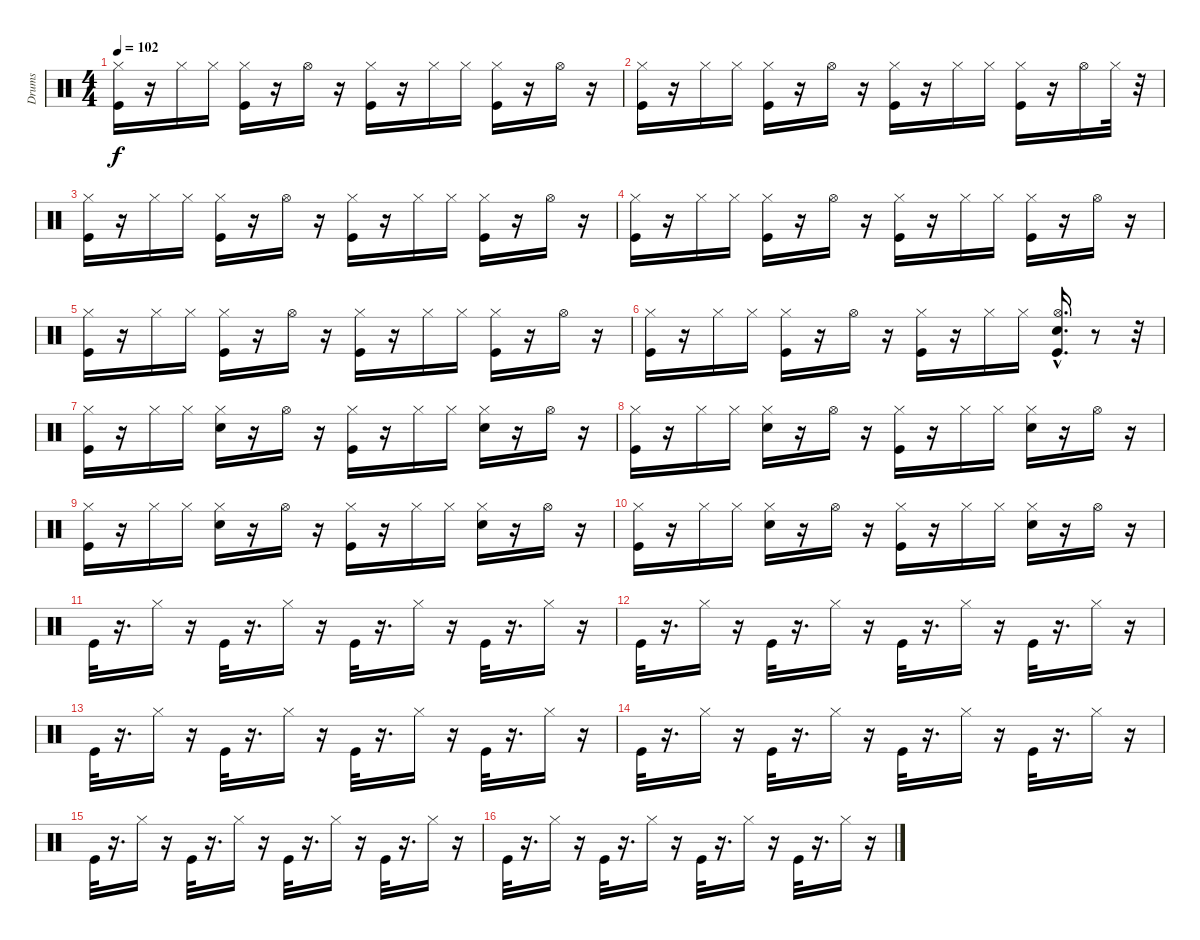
\track ("Drums" "Drums") {instrument percussion}
\staff {score}
\articulation defaults
\ts (4 4)
\tempo 102
\clef neutral
\ks c
("Hi-Hat (closed)" "Kick (hit)").16{dy f} r.16 "Hi-Hat (closed)".16 "Hi-Hat (closed)".16 ("Hi-Hat (closed)" "Kick (hit)").16 r.16 "Hi-Hat (open)".16 r.16 ("Hi-Hat (closed)" "Kick (hit)").16 r.16 "Hi-Hat (closed)".16 "Hi-Hat (closed)".16 ("Hi-Hat (closed)" "Kick (hit)").16 r.16 "Hi-Hat (open)".16 r.16 |
("Hi-Hat (closed)" "Kick (hit)").16 r.16 "Hi-Hat (closed)".16 "Hi-Hat (closed)".16 ("Hi-Hat (closed)" "Kick (hit)").16 r.16 "Hi-Hat (open)".16 r.16 ("Hi-Hat (closed)" "Kick (hit)").16 r.16 "Hi-Hat (closed)".16 "Hi-Hat (closed)".16 ("Hi-Hat (closed)" "Kick (hit)").16 r.16 "Hi-Hat (open)".16 "Hi-Hat (closed)".32 r.32 |
("Hi-Hat (closed)" "Kick (hit)").16 r.16 "Hi-Hat (closed)".16 "Hi-Hat (closed)".16 ("Hi-Hat (closed)" "Kick (hit)").16 r.16 "Hi-Hat (open)".16 r.16 ("Hi-Hat (closed)" "Kick (hit)").16 r.16 "Hi-Hat (closed)".16 "Hi-Hat (closed)".16 ("Hi-Hat (closed)" "Kick (hit)").16 r.16 "Hi-Hat (open)".16 r.16 |
("Hi-Hat (closed)" "Kick (hit)").16 r.16 "Hi-Hat (closed)".16 "Hi-Hat (closed)".16 ("Hi-Hat (closed)" "Kick (hit)").16 r.16 "Hi-Hat (open)".16 r.16 ("Hi-Hat (closed)" "Kick (hit)").16 r.16 "Hi-Hat (closed)".16 "Hi-Hat (closed)".16 ("Hi-Hat (closed)" "Kick (hit)").16 r.16 "Hi-Hat (open)".16 r.16 |
("Hi-Hat (closed)" "Kick (hit)").16 r.16 "Hi-Hat (closed)".16 "Hi-Hat (closed)".16 ("Hi-Hat (closed)" "Kick (hit)").16 r.16 "Hi-Hat (open)".16 r.16 ("Hi-Hat (closed)" "Kick (hit)").16 r.16 "Hi-Hat (closed)".16 "Hi-Hat (closed)".16 ("Hi-Hat (closed)" "Kick (hit)").16 r.16 "Hi-Hat (open)".16 r.16 |
("Hi-Hat (closed)" "Kick (hit)").16 r.16 "Hi-Hat (closed)".16 "Hi-Hat (closed)".16 ("Hi-Hat (closed)" "Kick (hit)").16 r.16 "Hi-Hat (open)".16 r.16 ("Hi-Hat (closed)" "Kick (hit)").16 r.16 "Hi-Hat (closed)".16 "Hi-Hat (closed)".16 ("Hi-Hat (open)" "Hand Clap (hit)"{hac} "Kick (hit)").16{d} r.8 r.32 |
("Hi-Hat (closed)" "Kick (hit)").16 r.16 "Hi-Hat (closed)".16 "Hi-Hat (closed)".16 ("Hi-Hat (closed)" "Snare (hit) 2").16 r.16 "Hi-Hat (open)".16 r.16 ("Hi-Hat (closed)" "Kick (hit)").16 r.16 "Hi-Hat (closed)".16 "Hi-Hat (closed)".16 ("Hi-Hat (closed)" "Snare (hit) 2").16 r.16 "Hi-Hat (open)".16 r.16 |
("Hi-Hat (closed)" "Kick (hit)").16 r.16 "Hi-Hat (closed)".16 "Hi-Hat (closed)".16 ("Hi-Hat (closed)" "Snare (hit) 2").16 r.16 "Hi-Hat (open)".16 r.16 ("Hi-Hat (closed)" "Kick (hit)").16 r.16 "Hi-Hat (closed)".16 "Hi-Hat (closed)".16 ("Hi-Hat (closed)" "Snare (hit) 2").16 r.16 "Hi-Hat (open)".16 r.16 |
("Hi-Hat (closed)" "Kick (hit)").16 r.16 "Hi-Hat (closed)".16 "Hi-Hat (closed)".16 ("Hi-Hat (closed)" "Snare (hit) 2").16 r.16 "Hi-Hat (open)".16 r.16 ("Hi-Hat (closed)" "Kick (hit)").16 r.16 "Hi-Hat (closed)".16 "Hi-Hat (closed)".16 ("Hi-Hat (closed)" "Snare (hit) 2").16 r.16 "Hi-Hat (open)".16 r.16 |
("Hi-Hat (closed)" "Kick (hit)").16 r.16 "Hi-Hat (closed)".16 "Hi-Hat (closed)".16 ("Hi-Hat (closed)" "Snare (hit) 2").16 r.16 "Hi-Hat (open)".16 r.16 ("Hi-Hat (closed)" "Kick (hit)").16 r.16 "Hi-Hat (closed)".16 "Hi-Hat (closed)".16 ("Hi-Hat (closed)" "Snare (hit) 2").16 r.16 "Hi-Hat (open)".16 r.16 |
"Kick (hit)".32 r.16{d} "Hi-Hat (closed)".16 r.16 "Kick (hit)".32 r.16{d} "Hi-Hat (closed)".16 r.16 "Kick (hit)".32 r.16{d} "Hi-Hat (closed)".16 r.16 "Kick (hit)".32 r.16{d} "Hi-Hat (closed)".16 r.16 |
"Kick (hit)".32 r.16{d} "Hi-Hat (closed)".16 r.16 "Kick (hit)".32 r.16{d} "Hi-Hat (closed)".16 r.16 "Kick (hit)".32 r.16{d} "Hi-Hat (closed)".16 r.16 "Kick (hit)".32 r.16{d} "Hi-Hat (closed)".16 r.16 |
"Kick (hit)".32 r.16{d} "Hi-Hat (closed)".16 r.16 "Kick (hit)".32 r.16{d} "Hi-Hat (closed)".16 r.16 "Kick (hit)".32 r.16{d} "Hi-Hat (closed)".16 r.16 "Kick (hit)".32 r.16{d} "Hi-Hat (closed)".16 r.16 |
"Kick (hit)".32 r.16{d} "Hi-Hat (closed)".16 r.16 "Kick (hit)".32 r.16{d} "Hi-Hat (closed)".16 r.16 "Kick (hit)".32 r.16{d} "Hi-Hat (closed)".16 r.16 "Kick (hit)".32 r.16{d} "Hi-Hat (closed)".16 r.16 |
"Kick (hit)".32 r.16{d} "Hi-Hat (closed)".16 r.16 "Kick (hit)".32 r.16{d} "Hi-Hat (closed)".16 r.16 "Kick (hit)".32 r.16{d} "Hi-Hat (closed)".16 r.16 "Kick (hit)".32 r.16{d} "Hi-Hat (closed)".16 r.16 |
"Kick (hit)".32 r.16{d} "Hi-Hat (closed)".16 r.16 "Kick (hit)".32 r.16{d} "Hi-Hat (closed)".16 r.16 "Kick (hit)".32 r.16{d} "Hi-Hat (closed)".16 r.16 "Kick (hit)".32 r.16{d} "Hi-Hat (closed)".16 r.16
